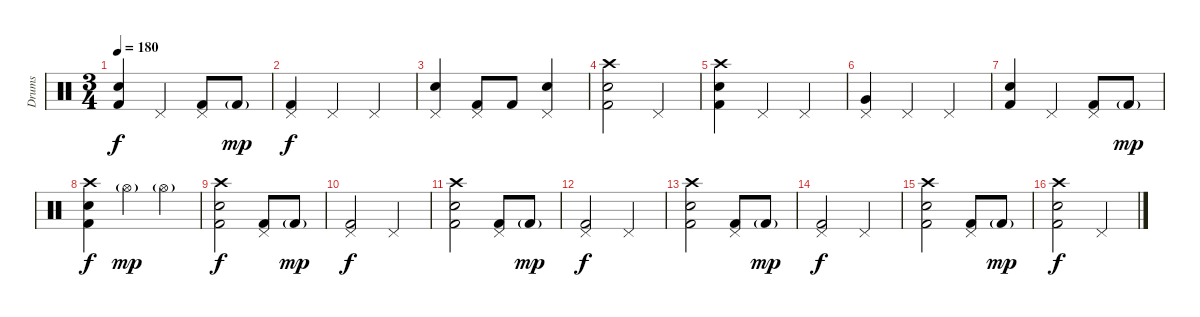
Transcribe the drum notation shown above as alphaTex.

\track ("Drums" "Drums") {instrument percussion}
\staff {score}
\articulation defaults
\ts (3 4)
\tempo 180
\clef neutral
\ks c
("Electric Snare (hit)" "Kick (hit) 2").4{dy f} "Pedal Hi-Hat (hit)".4 ("Pedal Hi-Hat (hit)" "Kick (hit) 2").8 "Kick (hit) 2"{g}.8{dy mp} |
("Pedal Hi-Hat (hit)" "Kick (hit) 2").4{dy f} "Pedal Hi-Hat (hit)".4 "Pedal Hi-Hat (hit)".4 |
("Electric Snare (hit)" "Pedal Hi-Hat (hit)").4 ("Pedal Hi-Hat (hit)" "Kick (hit) 2").8 "Kick (hit) 2".8 ("Snare (hit) 2" "Pedal Hi-Hat (hit)").4 |
("Crash high (hit)" "Electric Snare (hit)" "Kick (hit) 2").2 "Pedal Hi-Hat (hit)".4 |
("Crash high (hit)" "Electric Snare (hit)" "Kick (hit) 2").4 "Pedal Hi-Hat (hit)".4 "Pedal Hi-Hat (hit)".4 |
("Pedal Hi-Hat (hit)" "Very Low Tom (hit)").4 "Pedal Hi-Hat (hit)".4 "Pedal Hi-Hat (hit)".4 |
("Electric Snare (hit)" "Kick (hit) 2").4 "Pedal Hi-Hat (hit)".4 ("Pedal Hi-Hat (hit)" "Kick (hit) 2").8 "Kick (hit) 2"{g}.8{dy mp} |
("Crash high (hit)" "Snare (hit) 2" "Kick (hit) 2").4{dy f} "Hi-Hat (open)"{g}.4{dy mp} "Hi-Hat (open)"{g}.4 |
("Crash high (hit)" "Electric Snare (hit)" "Kick (hit) 2").2{dy f} ("Pedal Hi-Hat (hit)" "Kick (hit) 2").8 "Kick (hit) 2"{g}.8{dy mp} |
("Pedal Hi-Hat (hit)" "Kick (hit) 2").2{dy f} "Pedal Hi-Hat (hit)".4 |
("Crash high (hit)" "Electric Snare (hit)" "Kick (hit) 2").2 ("Pedal Hi-Hat (hit)" "Kick (hit) 2").8 "Kick (hit) 2"{g}.8{dy mp} |
("Pedal Hi-Hat (hit)" "Kick (hit) 2").2{dy f} "Pedal Hi-Hat (hit)".4 |
("Crash high (hit)" "Electric Snare (hit)" "Kick (hit) 2").2 ("Pedal Hi-Hat (hit)" "Kick (hit) 2").8 "Kick (hit) 2"{g}.8{dy mp} |
("Pedal Hi-Hat (hit)" "Kick (hit) 2").2{dy f} "Pedal Hi-Hat (hit)".4 |
("Crash high (hit)" "Electric Snare (hit)" "Kick (hit) 2").2 ("Pedal Hi-Hat (hit)" "Kick (hit) 2").8 "Kick (hit) 2"{g}.8{dy mp} |
("Crash high (hit)" "Snare (hit) 2" "Kick (hit) 2").2{dy f} "Pedal Hi-Hat (hit)".4
